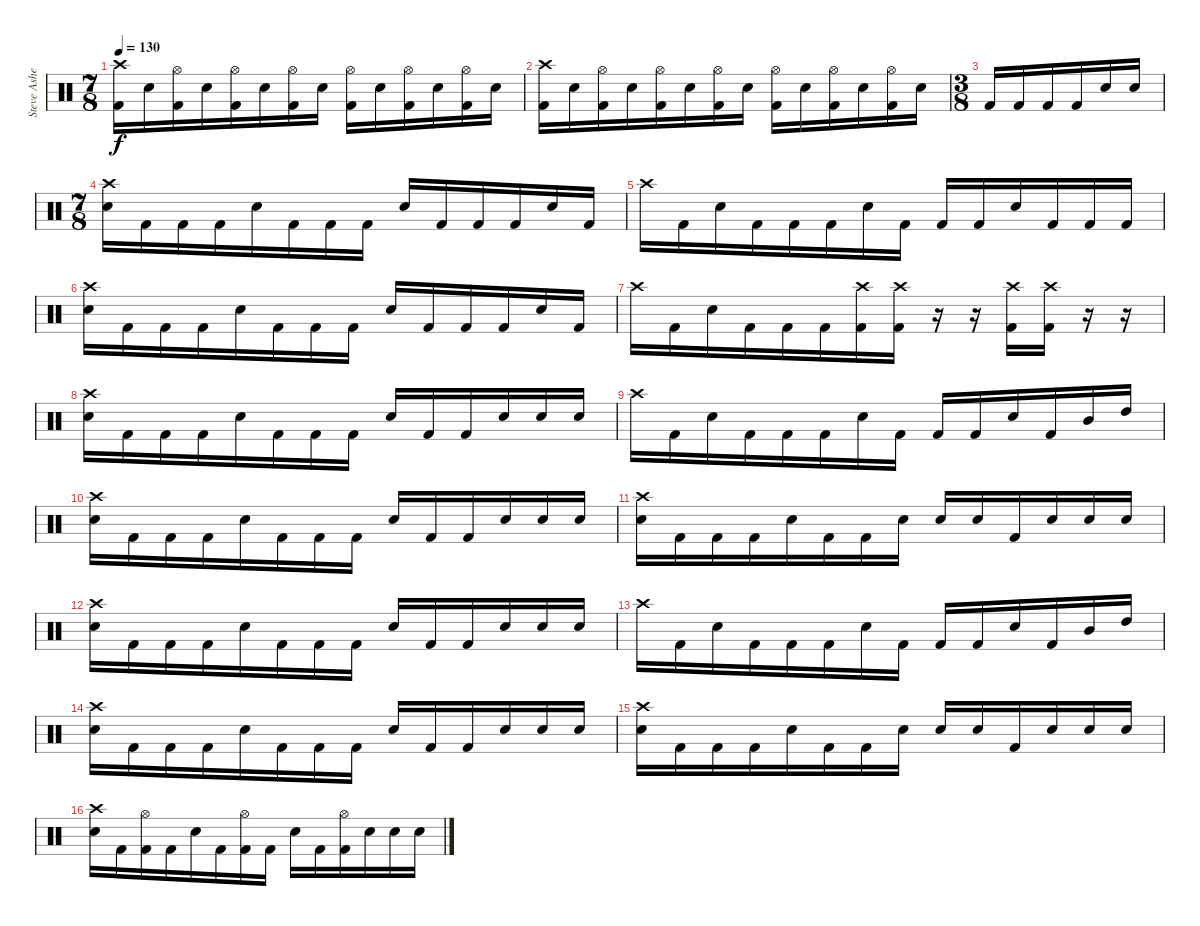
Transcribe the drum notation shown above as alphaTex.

\track ("Steve Asheim" "Steve Ashe") {instrument percussion}
\staff {score}
\articulation defaults
\ts (7 8)
\tempo 130
\clef neutral
\ks c
("Crash high (hit)" "Kick (hit) 2").16{dy f} "Electric Snare (hit)".16 ("Hi-Hat (open)" "Kick (hit) 2").16 "Electric Snare (hit)".16 ("Hi-Hat (open)" "Kick (hit) 2").16 "Electric Snare (hit)".16 ("Hi-Hat (open)" "Kick (hit) 2").16 "Electric Snare (hit)".16 ("Hi-Hat (open)" "Kick (hit) 2").16 "Electric Snare (hit)".16 ("Hi-Hat (open)" "Kick (hit) 2").16 "Electric Snare (hit)".16 ("Hi-Hat (open)" "Kick (hit) 2").16 "Electric Snare (hit)".16 |
("Crash high (hit)" "Kick (hit) 2").16 "Electric Snare (hit)".16 ("Hi-Hat (open)" "Kick (hit) 2").16 "Electric Snare (hit)".16 ("Hi-Hat (open)" "Kick (hit) 2").16 "Electric Snare (hit)".16 ("Hi-Hat (open)" "Kick (hit) 2").16 "Electric Snare (hit)".16 ("Hi-Hat (open)" "Kick (hit) 2").16 "Electric Snare (hit)".16 ("Hi-Hat (open)" "Kick (hit) 2").16 "Electric Snare (hit)".16 ("Hi-Hat (open)" "Kick (hit) 2").16 "Electric Snare (hit)".16 |
\ts (3 8)
"Kick (hit) 2".16 "Kick (hit) 2".16 "Kick (hit) 2".16 "Kick (hit) 2".16 "Snare (hit) 2".16 "Snare (hit) 2".16 |
\ts (7 8)
("Crash high (hit)" "Electric Snare (hit)").16 "Kick (hit) 2".16 "Kick (hit) 2".16 "Kick (hit) 2".16 "Electric Snare (hit)".16 "Kick (hit) 2".16 "Kick (hit) 2".16 "Kick (hit) 2".16 "Electric Snare (hit)".16 "Kick (hit) 2".16 "Kick (hit) 2".16 "Kick (hit) 2".16 "Electric Snare (hit)".16 "Kick (hit) 2".16 |
"Crash high (hit)".16 "Kick (hit) 2".16 "Electric Snare (hit)".16 "Kick (hit) 2".16 "Kick (hit) 2".16 "Kick (hit) 2".16 "Electric Snare (hit)".16 "Kick (hit) 2".16 "Kick (hit) 2".16 "Kick (hit) 2".16 "Electric Snare (hit)".16 "Kick (hit) 2".16 "Kick (hit) 2".16 "Kick (hit) 2".16 |
("Crash high (hit)" "Electric Snare (hit)").16 "Kick (hit) 2".16 "Kick (hit) 2".16 "Kick (hit) 2".16 "Electric Snare (hit)".16 "Kick (hit) 2".16 "Kick (hit) 2".16 "Kick (hit) 2".16 "Electric Snare (hit)".16 "Kick (hit) 2".16 "Kick (hit) 2".16 "Kick (hit) 2".16 "Electric Snare (hit)".16 "Kick (hit) 2".16 |
"Crash high (hit)".16 "Kick (hit) 2".16 "Electric Snare (hit)".16 "Kick (hit) 2".16 "Kick (hit) 2".16 "Kick (hit) 2".16 ("Crash high (hit)" "Kick (hit) 2").16 ("Crash high (hit)" "Kick (hit) 2").16 r.16 r.16 ("Crash high (hit)" "Kick (hit) 2").16 ("Crash high (hit)" "Kick (hit) 2").16 r.16 r.16 |
("Crash high (hit)" "Electric Snare (hit)").16 "Kick (hit) 2".16 "Kick (hit) 2".16 "Kick (hit) 2".16 "Electric Snare (hit)".16 "Kick (hit) 2".16 "Kick (hit) 2".16 "Kick (hit) 2".16 "Electric Snare (hit)".16 "Kick (hit) 2".16 "Kick (hit) 2".16 "Snare (hit) 2".16 "Snare (hit) 2".16 "Snare (hit) 2".16 |
"Crash high (hit)".16 "Kick (hit) 2".16 "Electric Snare (hit)".16 "Kick (hit) 2".16 "Kick (hit) 2".16 "Kick (hit) 2".16 "Electric Snare (hit)".16 "Kick (hit) 2".16 "Kick (hit) 2".16 "Kick (hit) 2".16 "Electric Snare (hit)".16 "Kick (hit) 2".16 "Mid Tom (hit)".16 "High Tom (hit)".16 |
("Crash high (hit)" "Electric Snare (hit)").16 "Kick (hit) 2".16 "Kick (hit) 2".16 "Kick (hit) 2".16 "Electric Snare (hit)".16 "Kick (hit) 2".16 "Kick (hit) 2".16 "Kick (hit) 2".16 "Electric Snare (hit)".16 "Kick (hit) 2".16 "Kick (hit) 2".16 "Snare (hit) 2".16 "Snare (hit) 2".16 "Snare (hit) 2".16 |
("Crash high (hit)" "Electric Snare (hit)").16 "Kick (hit) 2".16 "Kick (hit) 2".16 "Kick (hit) 2".16 "Electric Snare (hit)".16 "Kick (hit) 2".16 "Kick (hit) 2".16 "Snare (hit) 2".16 "Snare (hit) 2".16 "Snare (hit) 2".16 "Kick (hit) 2".16 "Snare (hit) 2".16 "Snare (hit) 2".16 "Snare (hit) 2".16 |
("Crash high (hit)" "Electric Snare (hit)").16 "Kick (hit) 2".16 "Kick (hit) 2".16 "Kick (hit) 2".16 "Electric Snare (hit)".16 "Kick (hit) 2".16 "Kick (hit) 2".16 "Kick (hit) 2".16 "Electric Snare (hit)".16 "Kick (hit) 2".16 "Kick (hit) 2".16 "Snare (hit) 2".16 "Snare (hit) 2".16 "Snare (hit) 2".16 |
"Crash high (hit)".16 "Kick (hit) 2".16 "Electric Snare (hit)".16 "Kick (hit) 2".16 "Kick (hit) 2".16 "Kick (hit) 2".16 "Electric Snare (hit)".16 "Kick (hit) 2".16 "Kick (hit) 2".16 "Kick (hit) 2".16 "Electric Snare (hit)".16 "Kick (hit) 2".16 "Mid Tom (hit)".16 "High Tom (hit)".16 |
("Crash high (hit)" "Electric Snare (hit)").16 "Kick (hit) 2".16 "Kick (hit) 2".16 "Kick (hit) 2".16 "Electric Snare (hit)".16 "Kick (hit) 2".16 "Kick (hit) 2".16 "Kick (hit) 2".16 "Electric Snare (hit)".16 "Kick (hit) 2".16 "Kick (hit) 2".16 "Snare (hit) 2".16 "Snare (hit) 2".16 "Snare (hit) 2".16 |
("Crash high (hit)" "Electric Snare (hit)").16 "Kick (hit) 2".16 "Kick (hit) 2".16 "Kick (hit) 2".16 "Electric Snare (hit)".16 "Kick (hit) 2".16 "Kick (hit) 2".16 "Snare (hit) 2".16 "Snare (hit) 2".16 "Snare (hit) 2".16 "Kick (hit) 2".16 "Snare (hit) 2".16 "Snare (hit) 2".16 "Snare (hit) 2".16 |
("Crash high (hit)" "Electric Snare (hit)").16 "Kick (hit) 2".16 ("Hi-Hat (open)" "Kick (hit) 2").16 "Kick (hit) 2".16 "Electric Snare (hit)".16 "Kick (hit) 2".16 ("Hi-Hat (open)" "Kick (hit) 2").16 "Kick (hit) 2".16 "Electric Snare (hit)".16 "Kick (hit) 2".16 ("Hi-Hat (open)" "Kick (hit) 2").16 "Snare (hit) 2".16 "Snare (hit) 2".16 "Snare (hit) 2".16
